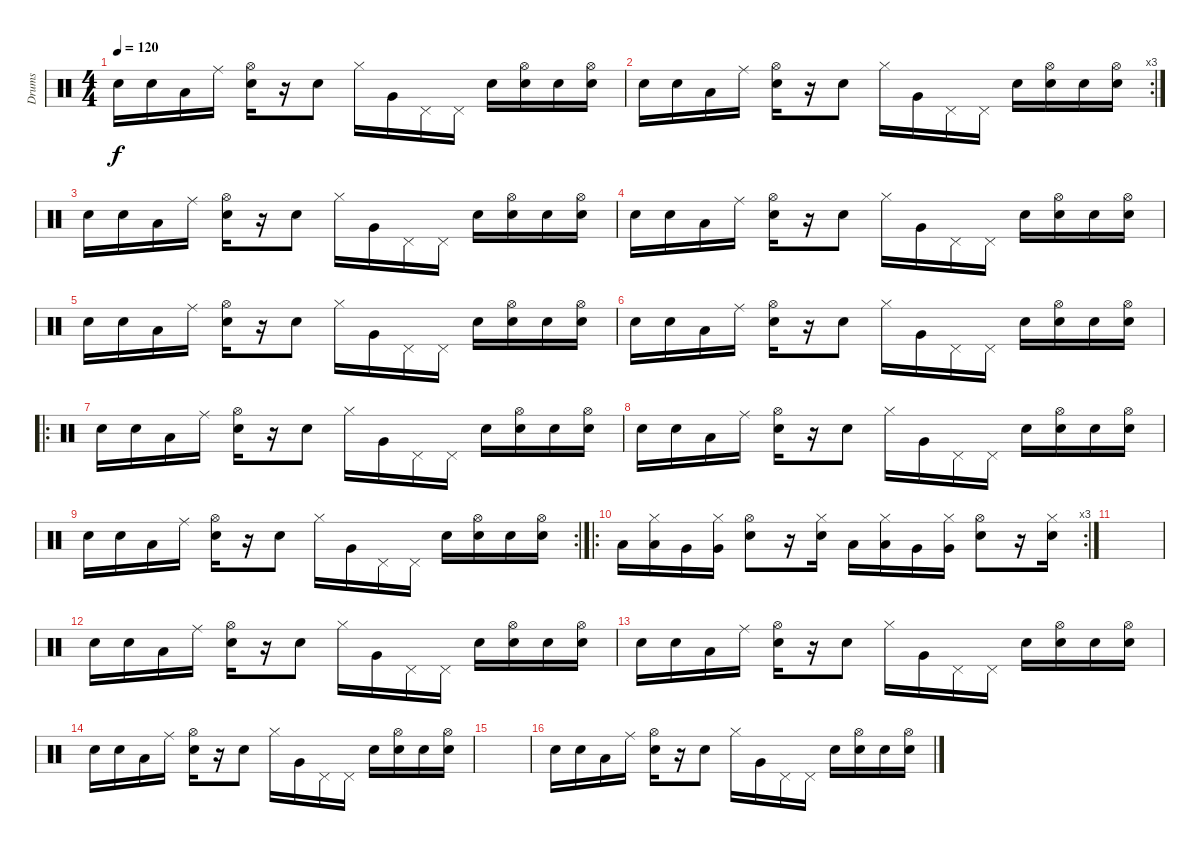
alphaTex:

\track ("Drums" "Drums") {instrument percussion}
\staff {score}
\articulation defaults
\ts (4 4)
\tempo 120
\clef neutral
\ks c "Snare (hit) 2".16{dy f} "Snare (hit) 2".16 "Low Floor Tom (hit)".16 "Ride (middle)".16
("Electric Snare (hit)" "Hi-Hat (open)").16 r.16 "Electric Snare (hit)".8 "Hi-Hat (closed)".16 "Very Low Tom (hit)".16 "Pedal Hi-Hat (hit)".16 "Pedal Hi-Hat (hit)".16 "Electric Snare (hit)".16 ("Electric Snare (hit)" "Hi-Hat (open)").16 "Electric Snare (hit)".16 ("Electric Snare (hit)" "Hi-Hat (open)").16 |
\rc 3 "Snare (hit) 2".16 "Snare (hit) 2".16 "Low Floor Tom (hit)".16 "Ride (middle)".16
("Electric Snare (hit)" "Hi-Hat (open)").16 r.16 "Electric Snare (hit)".8 "Hi-Hat (closed)".16 "Very Low Tom (hit)".16 "Pedal Hi-Hat (hit)".16 "Pedal Hi-Hat (hit)".16 "Electric Snare (hit)".16 ("Electric Snare (hit)" "Hi-Hat (open)").16 "Electric Snare (hit)".16 ("Electric Snare (hit)" "Hi-Hat (open)").16 |
"Snare (hit) 2".16 "Snare (hit) 2".16 "Low Floor Tom (hit)".16 "Ride (middle)".16 ("Electric Snare (hit)" "Hi-Hat (open)").16 r.16 "Electric Snare (hit)".8 "Hi-Hat (closed)".16 "Very Low Tom (hit)".16 "Pedal Hi-Hat (hit)".16 "Pedal Hi-Hat (hit)".16 "Electric Snare (hit)".16 ("Electric Snare (hit)" "Hi-Hat (open)").16 "Electric Snare (hit)".16 ("Electric Snare (hit)" "Hi-Hat (open)").16 |
"Snare (hit) 2".16 "Snare (hit) 2".16 "Low Floor Tom (hit)".16 "Ride (middle)".16 ("Electric Snare (hit)" "Hi-Hat (open)").16 r.16 "Electric Snare (hit)".8 "Hi-Hat (closed)".16 "Very Low Tom (hit)".16 "Pedal Hi-Hat (hit)".16 "Pedal Hi-Hat (hit)".16 "Electric Snare (hit)".16 ("Electric Snare (hit)" "Hi-Hat (open)").16 "Electric Snare (hit)".16 ("Electric Snare (hit)" "Hi-Hat (open)").16 |
"Snare (hit) 2".16 "Snare (hit) 2".16 "Low Floor Tom (hit)".16 "Ride (middle)".16 ("Electric Snare (hit)" "Hi-Hat (open)").16 r.16 "Electric Snare (hit)".8 "Hi-Hat (closed)".16 "Very Low Tom (hit)".16 "Pedal Hi-Hat (hit)".16 "Pedal Hi-Hat (hit)".16 "Electric Snare (hit)".16 ("Electric Snare (hit)" "Hi-Hat (open)").16 "Electric Snare (hit)".16 ("Electric Snare (hit)" "Hi-Hat (open)").16 |
"Snare (hit) 2".16 "Snare (hit) 2".16 "Low Floor Tom (hit)".16 "Ride (middle)".16 ("Electric Snare (hit)" "Hi-Hat (open)").16 r.16 "Electric Snare (hit)".8 "Hi-Hat (closed)".16 "Very Low Tom (hit)".16 "Pedal Hi-Hat (hit)".16 "Pedal Hi-Hat (hit)".16 "Electric Snare (hit)".16 ("Electric Snare (hit)" "Hi-Hat (open)").16 "Electric Snare (hit)".16 ("Electric Snare (hit)" "Hi-Hat (open)").16 |
\ro "Snare (hit) 2".16 "Snare (hit) 2".16 "Low Floor Tom (hit)".16 "Ride (middle)".16
("Electric Snare (hit)" "Hi-Hat (open)").16 r.16 "Electric Snare (hit)".8 "Hi-Hat (closed)".16 "Very Low Tom (hit)".16 "Pedal Hi-Hat (hit)".16 "Pedal Hi-Hat (hit)".16 "Electric Snare (hit)".16 ("Electric Snare (hit)" "Hi-Hat (open)").16 "Electric Snare (hit)".16 ("Electric Snare (hit)" "Hi-Hat (open)").16 |
"Snare (hit) 2".16 "Snare (hit) 2".16 "Low Floor Tom (hit)".16 "Ride (middle)".16 ("Electric Snare (hit)" "Hi-Hat (open)").16 r.16 "Electric Snare (hit)".8 "Hi-Hat (closed)".16 "Very Low Tom (hit)".16 "Pedal Hi-Hat (hit)".16 "Pedal Hi-Hat (hit)".16 "Electric Snare (hit)".16 ("Electric Snare (hit)" "Hi-Hat (open)").16 "Electric Snare (hit)".16 ("Electric Snare (hit)" "Hi-Hat (open)").16 |
\rc 2 "Snare (hit) 2".16 "Snare (hit) 2".16 "Low Floor Tom (hit)".16 "Ride (middle)".16
("Electric Snare (hit)" "Hi-Hat (open)").16 r.16 "Electric Snare (hit)".8 "Hi-Hat (closed)".16 "Very Low Tom (hit)".16 "Pedal Hi-Hat (hit)".16 "Pedal Hi-Hat (hit)".16 "Electric Snare (hit)".16 ("Electric Snare (hit)" "Hi-Hat (open)").16 "Electric Snare (hit)".16 ("Electric Snare (hit)" "Hi-Hat (open)").16 |
\ro
\rc 3 "Low Floor Tom (hit)".16
("Low Floor Tom (hit)" "Hi-Hat (closed)").16 "Very Low Tom (hit)".16 ("Very Low Tom (hit)" "Hi-Hat (closed)").16 ("Electric Snare (hit)" "Hi-Hat (open)").8 r.16 ("Hi-Hat (closed)" "Electric Snare (hit)").16 "Low Floor Tom (hit)".16 ("Low Floor Tom (hit)" "Hi-Hat (closed)").16 "Very Low Tom (hit)".16 ("Very Low Tom (hit)" "Hi-Hat (closed)").16 ("Electric Snare (hit)" "Hi-Hat (open)").8 r.16 ("Hi-Hat (closed)" "Electric Snare (hit)").16 |
|
"Snare (hit) 2".16 "Snare (hit) 2".16 "Low Floor Tom (hit)".16 "Ride (middle)".16 ("Electric Snare (hit)" "Hi-Hat (open)").16 r.16 "Electric Snare (hit)".8 "Hi-Hat (closed)".16 "Very Low Tom (hit)".16 "Pedal Hi-Hat (hit)".16 "Pedal Hi-Hat (hit)".16 "Electric Snare (hit)".16 ("Electric Snare (hit)" "Hi-Hat (open)").16 "Electric Snare (hit)".16 ("Electric Snare (hit)" "Hi-Hat (open)").16 |
"Snare (hit) 2".16 "Snare (hit) 2".16 "Low Floor Tom (hit)".16 "Ride (middle)".16 ("Electric Snare (hit)" "Hi-Hat (open)").16 r.16 "Electric Snare (hit)".8 "Hi-Hat (closed)".16 "Very Low Tom (hit)".16 "Pedal Hi-Hat (hit)".16 "Pedal Hi-Hat (hit)".16 "Electric Snare (hit)".16 ("Electric Snare (hit)" "Hi-Hat (open)").16 "Electric Snare (hit)".16 ("Electric Snare (hit)" "Hi-Hat (open)").16 |
"Snare (hit) 2".16 "Snare (hit) 2".16 "Low Floor Tom (hit)".16 "Ride (middle)".16 ("Electric Snare (hit)" "Hi-Hat (open)").16 r.16 "Electric Snare (hit)".8 "Hi-Hat (closed)".16 "Very Low Tom (hit)".16 "Pedal Hi-Hat (hit)".16 "Pedal Hi-Hat (hit)".16 "Electric Snare (hit)".16 ("Electric Snare (hit)" "Hi-Hat (open)").16 "Electric Snare (hit)".16 ("Electric Snare (hit)" "Hi-Hat (open)").16 |
|
"Snare (hit) 2".16 "Snare (hit) 2".16 "Low Floor Tom (hit)".16 "Ride (middle)".16 ("Electric Snare (hit)" "Hi-Hat (open)").16 r.16 "Electric Snare (hit)".8 "Hi-Hat (closed)".16 "Very Low Tom (hit)".16 "Pedal Hi-Hat (hit)".16 "Pedal Hi-Hat (hit)".16 "Electric Snare (hit)".16 ("Electric Snare (hit)" "Hi-Hat (open)").16 "Electric Snare (hit)".16 ("Electric Snare (hit)" "Hi-Hat (open)").16
